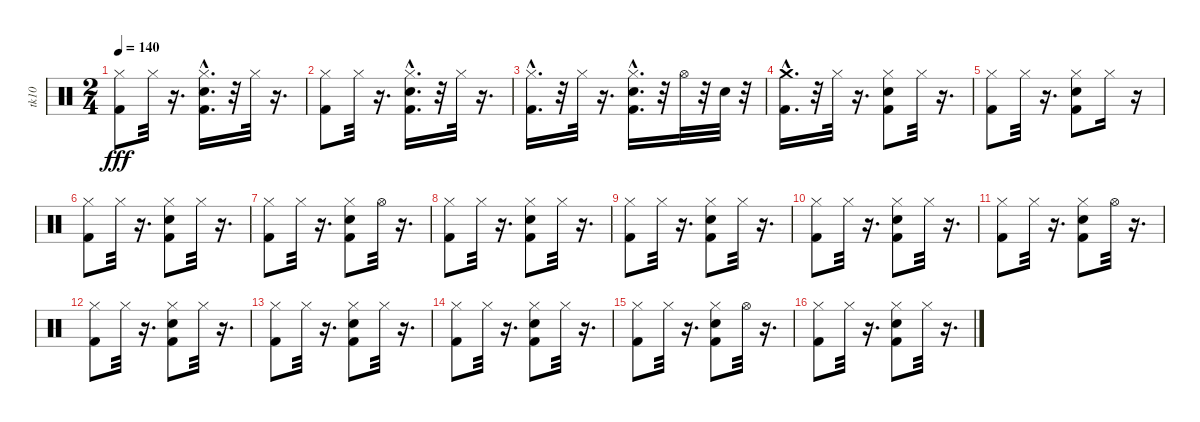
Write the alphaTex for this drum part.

\track ("tk10" "tk10") {instrument percussion}
\staff {score}
\articulation defaults
\ts (2 4)
\tempo 140
\clef neutral
\ks c
("Kick (hit) 2" "Hi-Hat (closed)").8{dy fff} "Hi-Hat (closed)".32 r.16{d} ("Kick (hit) 2"{hac} "Hi-Hat (closed)" "Snare (hit) 2"{hac}).16{d} r.32 "Hi-Hat (closed)".32 r.16{d} |
("Kick (hit) 2" "Hi-Hat (closed)").8 "Hi-Hat (closed)".32 r.16{d} ("Snare (hit) 2"{hac} "Kick (hit) 2"{hac} "Hi-Hat (closed)").16{d} r.32 "Hi-Hat (closed)".32 r.16{d} |
("Kick (hit) 2"{hac} "Hi-Hat (closed)").16{d} r.32 "Hi-Hat (closed)".32 r.16{d} ("Snare (hit) 2"{hac} "Kick (hit) 2"{hac} "Hi-Hat (closed)").16{d} r.32 "Hi-Hat (open)".32 r.32 "Snare (hit) 2".32 r.32 |
("Kick (hit) 2"{hac} "Crash medium (hit)").16{d} r.32 "Hi-Hat (closed)".32 r.16{d} ("Snare (hit) 2" "Hi-Hat (closed)" "Kick (hit) 2").8 "Hi-Hat (closed)".32 r.16{d} |
("Kick (hit) 2" "Hi-Hat (closed)").8 "Hi-Hat (closed)".32 r.16{d} ("Snare (hit) 2" "Kick (hit) 2" "Hi-Hat (closed)").8 "Hi-Hat (closed)".16 r.16 |
("Kick (hit) 2" "Hi-Hat (closed)").8 "Hi-Hat (closed)".32 r.16{d} ("Snare (hit) 2" "Kick (hit) 2" "Hi-Hat (closed)").8 "Hi-Hat (closed)".32 r.16{d} |
("Kick (hit) 2" "Hi-Hat (closed)").8 "Hi-Hat (closed)".32 r.16{d} ("Kick (hit) 2" "Snare (hit) 2" "Hi-Hat (closed)").8 "Hi-Hat (open)".32 r.16{d} |
("Kick (hit) 2" "Hi-Hat (closed)").8 "Hi-Hat (closed)".32 r.16{d} ("Snare (hit) 2" "Kick (hit) 2" "Hi-Hat (closed)").8 "Hi-Hat (closed)".32 r.16{d} |
("Kick (hit) 2" "Hi-Hat (closed)").8 "Hi-Hat (closed)".32 r.16{d} ("Snare (hit) 2" "Kick (hit) 2" "Hi-Hat (closed)").8 "Hi-Hat (closed)".32 r.16{d} |
("Kick (hit) 2" "Hi-Hat (closed)").8 "Hi-Hat (closed)".32 r.16{d} ("Snare (hit) 2" "Kick (hit) 2" "Hi-Hat (closed)").8 "Hi-Hat (closed)".32 r.16{d} |
("Kick (hit) 2" "Hi-Hat (closed)").8 "Hi-Hat (closed)".32 r.16{d} ("Snare (hit) 2" "Kick (hit) 2" "Hi-Hat (closed)").8 "Hi-Hat (open)".32 r.16{d} |
("Kick (hit) 2" "Hi-Hat (closed)").8 "Hi-Hat (closed)".32 r.16{d} ("Snare (hit) 2" "Kick (hit) 2" "Hi-Hat (closed)").8 "Hi-Hat (closed)".32 r.16{d} |
("Kick (hit) 2" "Hi-Hat (closed)").8 "Hi-Hat (closed)".32 r.16{d} ("Snare (hit) 2" "Kick (hit) 2" "Hi-Hat (closed)").8 "Hi-Hat (closed)".32 r.16{d} |
("Kick (hit) 2" "Hi-Hat (closed)").8 "Hi-Hat (closed)".32 r.16{d} ("Snare (hit) 2" "Kick (hit) 2" "Hi-Hat (closed)").8 "Hi-Hat (closed)".32 r.16{d} |
("Kick (hit) 2" "Hi-Hat (closed)").8 "Hi-Hat (closed)".32 r.16{d} ("Snare (hit) 2" "Kick (hit) 2" "Hi-Hat (closed)").8 "Hi-Hat (open)".32 r.16{d} |
("Kick (hit) 2" "Hi-Hat (closed)").8 "Hi-Hat (closed)".32 r.16{d} ("Hi-Hat (closed)" "Snare (hit) 2" "Kick (hit) 2").8 "Hi-Hat (closed)".32 r.16{d}
